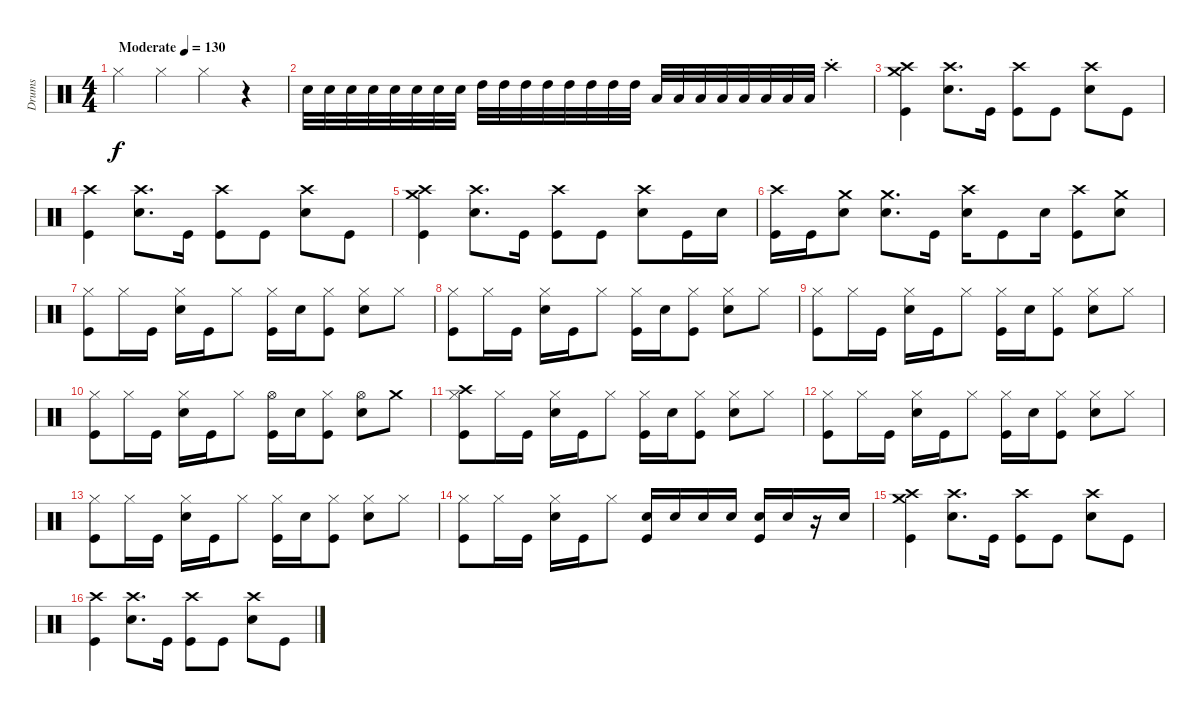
\track ("Drums" "Drums") {instrument percussion}
\staff {score}
\articulation defaults
\ts (4 4)
\tempo (130 "Moderate")
\clef neutral
\ks c "Hi-Hat (closed)".4{dy f} "Hi-Hat (closed)".4 "Hi-Hat (closed)".4
r.4 |
"Snare (hit) 2".32 "Snare (hit) 2".32 "Snare (hit) 2".32 "Snare (hit) 2".32 "Snare (hit) 2".32 "Snare (hit) 2".32 "Snare (hit) 2".32 "Snare (hit) 2".32 "High Tom (hit)".32 "High Tom (hit)".32 "High Tom (hit)".32 "High Tom (hit)".32 "High Tom (hit)".32 "High Tom (hit)".32 "High Tom (hit)".32 "High Tom (hit)".32 "Low Tom (hit)".32 "Low Tom (hit)".32 "Low Tom (hit)".32 "Low Tom (hit)".32 "Low Tom (hit)".32 "Low Tom (hit)".32 "Low Tom (hit)".32 "Low Tom (hit)".32 "Crash high (hit)"{st}.4 |
("Crash high (hit)" "Crash medium (hit)" "Kick (hit)").4 ("Crash high (hit)" "Snare (hit) 2").8{d} "Kick (hit)".16 ("Crash high (hit)" "Kick (hit)").8 "Kick (hit)".8 ("Crash high (hit)" "Snare (hit) 2").8 "Kick (hit)".8 |
("Crash high (hit)" "Kick (hit)").4 ("Crash high (hit)" "Snare (hit) 2").8{d} "Kick (hit)".16 ("Crash high (hit)" "Kick (hit)").8 "Kick (hit)".8 ("Crash high (hit)" "Snare (hit) 2").8 "Kick (hit)".8 |
("Crash high (hit)" "Crash medium (hit)" "Kick (hit)").4 ("Crash high (hit)" "Snare (hit) 2").8{d} "Kick (hit)".16 ("Crash high (hit)" "Kick (hit)").8 "Kick (hit)".8 ("Crash high (hit)" "Snare (hit) 2").8 "Kick (hit)".16 "Snare (hit) 2".16 |
("Crash high (hit)" "Kick (hit)").16 "Kick (hit)".16 ("Crash medium (hit)" "Snare (hit) 2").8 ("Crash medium (hit)" "Snare (hit) 2").8{d} "Kick (hit)".16 ("Crash high (hit)" "Snare (hit) 2").16 "Kick (hit)".8 "Snare (hit) 2".16 ("Crash high (hit)" "Kick (hit)").8 ("Crash medium (hit)" "Snare (hit) 2").8 |
("Hi-Hat (closed)" "Kick (hit)").8 "Hi-Hat (closed)".16 "Kick (hit)".16 ("Hi-Hat (closed)" "Snare (hit) 2").16 "Kick (hit)".16 "Hi-Hat (closed)".8 ("Hi-Hat (closed)" "Kick (hit)").16 "Snare (hit) 2".16 ("Hi-Hat (closed)" "Kick (hit)").8 ("Hi-Hat (closed)" "Snare (hit) 2").8 "Hi-Hat (closed)".8 |
("Hi-Hat (closed)" "Kick (hit)").8 "Hi-Hat (closed)".16 "Kick (hit)".16 ("Hi-Hat (closed)" "Snare (hit) 2").16 "Kick (hit)".16 "Hi-Hat (closed)".8 ("Hi-Hat (closed)" "Kick (hit)").16 "Snare (hit) 2".16 ("Hi-Hat (closed)" "Kick (hit)").8 ("Hi-Hat (closed)" "Snare (hit) 2").8 "Hi-Hat (closed)".8 |
("Hi-Hat (closed)" "Kick (hit)").8 "Hi-Hat (closed)".16 "Kick (hit)".16 ("Hi-Hat (closed)" "Snare (hit) 2").16 "Kick (hit)".16 "Hi-Hat (closed)".8 ("Hi-Hat (closed)" "Kick (hit)").16 "Snare (hit) 2".16 ("Hi-Hat (closed)" "Kick (hit)").8 ("Hi-Hat (closed)" "Snare (hit) 2").8 "Hi-Hat (closed)".8 |
("Hi-Hat (closed)" "Kick (hit)").8 "Hi-Hat (closed)".16 "Kick (hit)".16 ("Hi-Hat (closed)" "Snare (hit) 2").16 "Kick (hit)".16 "Hi-Hat (closed)".8 ("Hi-Hat (open)" "Kick (hit)").16 "Snare (hit) 2".16 ("Hi-Hat (closed)" "Kick (hit)").8 ("Hi-Hat (open)" "Snare (hit) 2").8 "Crash medium (hit)".8 |
("Crash high (hit)" "Hi-Hat (closed)" "Kick (hit)").8 "Hi-Hat (closed)".16 "Kick (hit)".16 ("Hi-Hat (closed)" "Snare (hit) 2").16 "Kick (hit)".16 "Hi-Hat (closed)".8 ("Hi-Hat (closed)" "Kick (hit)").16 "Snare (hit) 2".16 ("Hi-Hat (closed)" "Kick (hit)").8 ("Hi-Hat (closed)" "Snare (hit) 2").8 "Hi-Hat (closed)".8 |
("Hi-Hat (closed)" "Kick (hit)").8 "Hi-Hat (closed)".16 "Kick (hit)".16 ("Hi-Hat (closed)" "Snare (hit) 2").16 "Kick (hit)".16 "Hi-Hat (closed)".8 ("Hi-Hat (closed)" "Kick (hit)").16 "Snare (hit) 2".16 ("Hi-Hat (closed)" "Kick (hit)").8 ("Hi-Hat (closed)" "Snare (hit) 2").8 "Hi-Hat (closed)".8 |
("Hi-Hat (closed)" "Kick (hit)").8 "Hi-Hat (closed)".16 "Kick (hit)".16 ("Hi-Hat (closed)" "Snare (hit) 2").16 "Kick (hit)".16 "Hi-Hat (closed)".8 ("Hi-Hat (closed)" "Kick (hit)").16 "Snare (hit) 2".16 ("Hi-Hat (closed)" "Kick (hit)").8 ("Hi-Hat (closed)" "Snare (hit) 2").8 "Hi-Hat (closed)".8 |
("Hi-Hat (closed)" "Kick (hit)").8 "Hi-Hat (closed)".16 "Kick (hit)".16 ("Hi-Hat (closed)" "Snare (hit) 2").16 "Kick (hit)".16 "Hi-Hat (closed)".8 ("Snare (hit) 2" "Kick (hit)").16 "Snare (hit) 2".16 "Snare (hit) 2".16 "Snare (hit) 2".16 ("Snare (hit) 2" "Kick (hit)").16 "Snare (hit) 2".16 r.16 "Snare (hit) 2".16 |
("Crash high (hit)" "Crash medium (hit)" "Kick (hit)").4 ("Crash high (hit)" "Snare (hit) 2").8{d} "Kick (hit)".16 ("Crash high (hit)" "Kick (hit)").8 "Kick (hit)".8 ("Crash high (hit)" "Snare (hit) 2").8 "Kick (hit)".8 |
("Crash high (hit)" "Kick (hit)").4 ("Crash high (hit)" "Snare (hit) 2").8{d} "Kick (hit)".16 ("Crash high (hit)" "Kick (hit)").8 "Kick (hit)".8 ("Crash high (hit)" "Snare (hit) 2").8 "Kick (hit)".8
